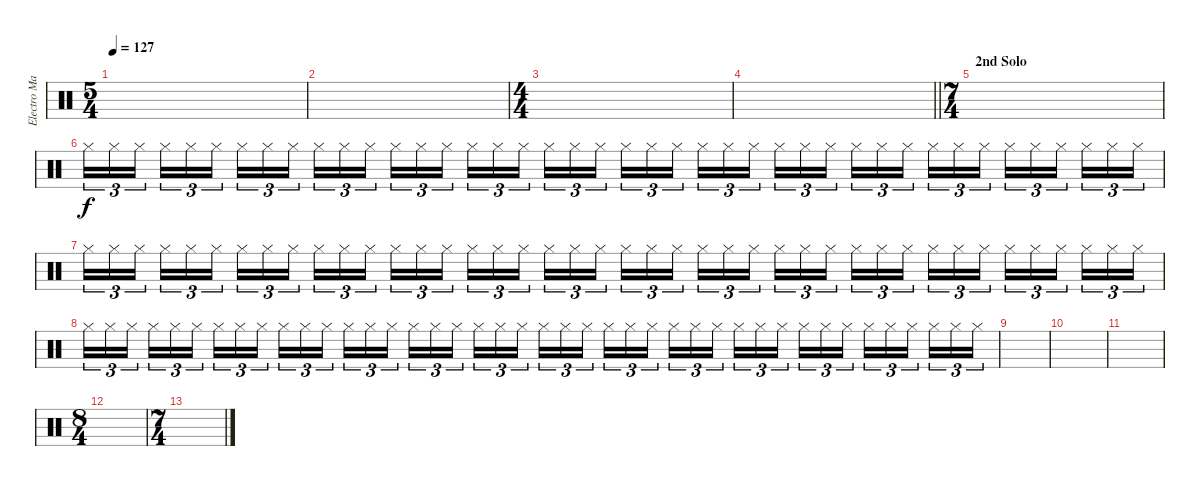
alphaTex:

\track ("Electro Mastelotto" "Electro Ma") {instrument percussion}
\staff {score}
\articulation defaults
\ts (5 4)
\tempo 127
\clef neutral
\ks c
|
|
\ts (4 4)
|
\barLineRight lightlight
|
\ts (7 4)
\section ("" "2nd Solo")
|
"Hi-Hat (closed)".16{tu (3 2)} "Hi-Hat (closed)".16{tu (3 2)} "Hi-Hat (closed)".16{tu (3 2) beam splitsecondary} "Hi-Hat (closed)".16{tu (3 2)} "Hi-Hat (closed)".16{tu (3 2)} "Hi-Hat (closed)".16{tu (3 2)} "Hi-Hat (closed)".16{tu (3 2)} "Hi-Hat (closed)".16{tu (3 2)} "Hi-Hat (closed)".16{tu (3 2) beam splitsecondary} "Hi-Hat (closed)".16{tu (3 2)} "Hi-Hat (closed)".16{tu (3 2)} "Hi-Hat (closed)".16{tu (3 2)} "Hi-Hat (closed)".16{tu (3 2)} "Hi-Hat (closed)".16{tu (3 2)} "Hi-Hat (closed)".16{tu (3 2) beam splitsecondary} "Hi-Hat (closed)".16{tu (3 2)} "Hi-Hat (closed)".16{tu (3 2)} "Hi-Hat (closed)".16{tu (3 2)} "Hi-Hat (closed)".16{tu (3 2)} "Hi-Hat (closed)".16{tu (3 2)} "Hi-Hat (closed)".16{tu (3 2) beam splitsecondary} "Hi-Hat (closed)".16{tu (3 2)} "Hi-Hat (closed)".16{tu (3 2)} "Hi-Hat (closed)".16{tu (3 2)} "Hi-Hat (closed)".16{tu (3 2)} "Hi-Hat (closed)".16{tu (3 2)} "Hi-Hat (closed)".16{tu (3 2) beam splitsecondary} "Hi-Hat (closed)".16{tu (3 2)} "Hi-Hat (closed)".16{tu (3 2)} "Hi-Hat (closed)".16{tu (3 2)} "Hi-Hat (closed)".16{tu (3 2)} "Hi-Hat (closed)".16{tu (3 2)} "Hi-Hat (closed)".16{tu (3 2) beam splitsecondary} "Hi-Hat (closed)".16{tu (3 2)} "Hi-Hat (closed)".16{tu (3 2)} "Hi-Hat (closed)".16{tu (3 2)} "Hi-Hat (closed)".16{tu (3 2)} "Hi-Hat (closed)".16{tu (3 2)} "Hi-Hat (closed)".16{tu (3 2) beam splitsecondary} "Hi-Hat (closed)".16{tu (3 2)} "Hi-Hat (closed)".16{tu (3 2)} "Hi-Hat (closed)".16{tu (3 2)} |
"Hi-Hat (closed)".16{tu (3 2)} "Hi-Hat (closed)".16{tu (3 2)} "Hi-Hat (closed)".16{tu (3 2) beam splitsecondary} "Hi-Hat (closed)".16{tu (3 2)} "Hi-Hat (closed)".16{tu (3 2)} "Hi-Hat (closed)".16{tu (3 2)} "Hi-Hat (closed)".16{tu (3 2)} "Hi-Hat (closed)".16{tu (3 2)} "Hi-Hat (closed)".16{tu (3 2) beam splitsecondary} "Hi-Hat (closed)".16{tu (3 2)} "Hi-Hat (closed)".16{tu (3 2)} "Hi-Hat (closed)".16{tu (3 2)} "Hi-Hat (closed)".16{tu (3 2)} "Hi-Hat (closed)".16{tu (3 2)} "Hi-Hat (closed)".16{tu (3 2) beam splitsecondary} "Hi-Hat (closed)".16{tu (3 2)} "Hi-Hat (closed)".16{tu (3 2)} "Hi-Hat (closed)".16{tu (3 2)} "Hi-Hat (closed)".16{tu (3 2)} "Hi-Hat (closed)".16{tu (3 2)} "Hi-Hat (closed)".16{tu (3 2) beam splitsecondary} "Hi-Hat (closed)".16{tu (3 2)} "Hi-Hat (closed)".16{tu (3 2)} "Hi-Hat (closed)".16{tu (3 2)} "Hi-Hat (closed)".16{tu (3 2)} "Hi-Hat (closed)".16{tu (3 2)} "Hi-Hat (closed)".16{tu (3 2) beam splitsecondary} "Hi-Hat (closed)".16{tu (3 2)} "Hi-Hat (closed)".16{tu (3 2)} "Hi-Hat (closed)".16{tu (3 2)} "Hi-Hat (closed)".16{tu (3 2)} "Hi-Hat (closed)".16{tu (3 2)} "Hi-Hat (closed)".16{tu (3 2) beam splitsecondary} "Hi-Hat (closed)".16{tu (3 2)} "Hi-Hat (closed)".16{tu (3 2)} "Hi-Hat (closed)".16{tu (3 2)} "Hi-Hat (closed)".16{tu (3 2)} "Hi-Hat (closed)".16{tu (3 2)} "Hi-Hat (closed)".16{tu (3 2) beam splitsecondary} "Hi-Hat (closed)".16{tu (3 2)} "Hi-Hat (closed)".16{tu (3 2)} "Hi-Hat (closed)".16{tu (3 2)} |
"Hi-Hat (closed)".16{tu (3 2)} "Hi-Hat (closed)".16{tu (3 2)} "Hi-Hat (closed)".16{tu (3 2) beam splitsecondary} "Hi-Hat (closed)".16{tu (3 2)} "Hi-Hat (closed)".16{tu (3 2)} "Hi-Hat (closed)".16{tu (3 2)} "Hi-Hat (closed)".16{tu (3 2)} "Hi-Hat (closed)".16{tu (3 2)} "Hi-Hat (closed)".16{tu (3 2) beam splitsecondary} "Hi-Hat (closed)".16{tu (3 2)} "Hi-Hat (closed)".16{tu (3 2)} "Hi-Hat (closed)".16{tu (3 2)} "Hi-Hat (closed)".16{tu (3 2)} "Hi-Hat (closed)".16{tu (3 2)} "Hi-Hat (closed)".16{tu (3 2) beam splitsecondary} "Hi-Hat (closed)".16{tu (3 2)} "Hi-Hat (closed)".16{tu (3 2)} "Hi-Hat (closed)".16{tu (3 2)} "Hi-Hat (closed)".16{tu (3 2)} "Hi-Hat (closed)".16{tu (3 2)} "Hi-Hat (closed)".16{tu (3 2) beam splitsecondary} "Hi-Hat (closed)".16{tu (3 2)} "Hi-Hat (closed)".16{tu (3 2)} "Hi-Hat (closed)".16{tu (3 2)} "Hi-Hat (closed)".16{tu (3 2)} "Hi-Hat (closed)".16{tu (3 2)} "Hi-Hat (closed)".16{tu (3 2) beam splitsecondary} "Hi-Hat (closed)".16{tu (3 2)} "Hi-Hat (closed)".16{tu (3 2)} "Hi-Hat (closed)".16{tu (3 2)} "Hi-Hat (closed)".16{tu (3 2)} "Hi-Hat (closed)".16{tu (3 2)} "Hi-Hat (closed)".16{tu (3 2) beam splitsecondary} "Hi-Hat (closed)".16{tu (3 2)} "Hi-Hat (closed)".16{tu (3 2)} "Hi-Hat (closed)".16{tu (3 2)} "Hi-Hat (closed)".16{tu (3 2)} "Hi-Hat (closed)".16{tu (3 2)} "Hi-Hat (closed)".16{tu (3 2) beam splitsecondary} "Hi-Hat (closed)".16{tu (3 2)} "Hi-Hat (closed)".16{tu (3 2)} "Hi-Hat (closed)".16{tu (3 2)} |
|
|
|
\ts (8 4)
|
\ts (7 4)
